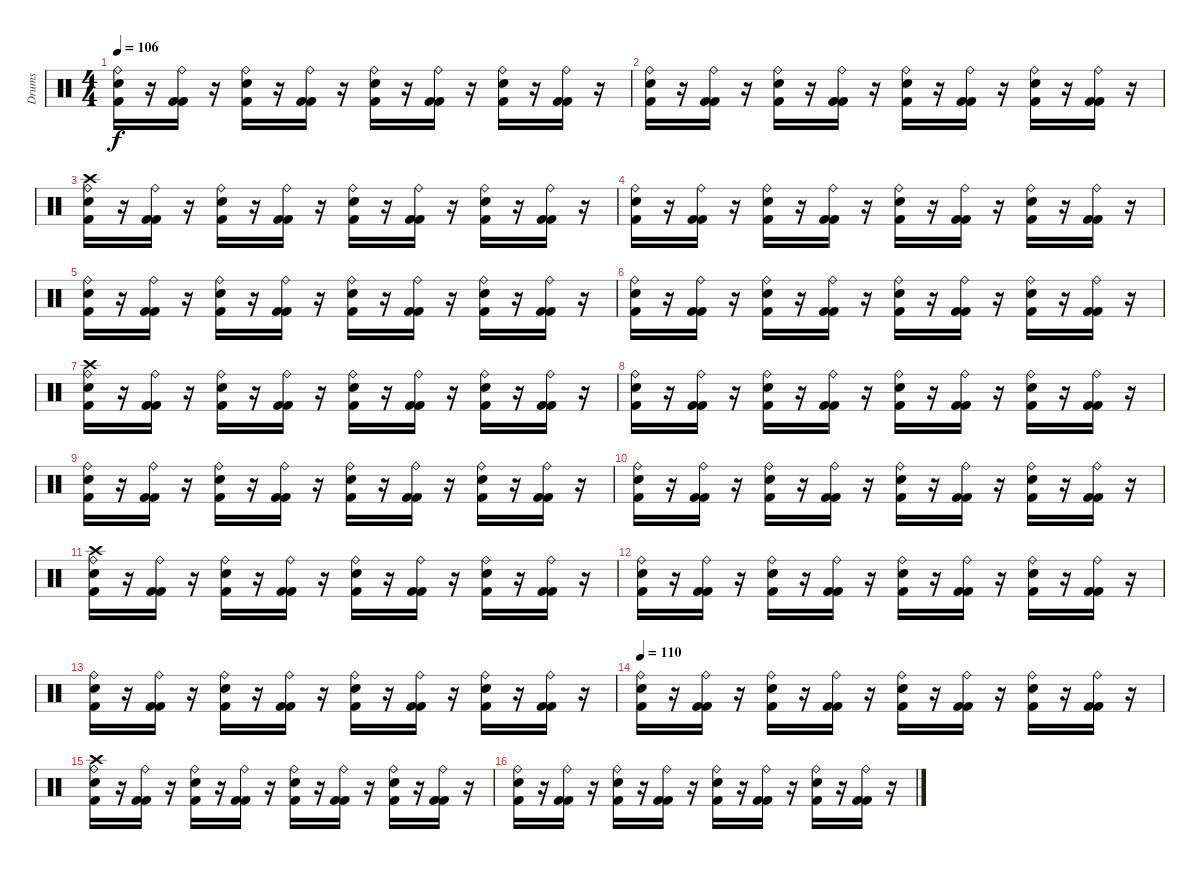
\track ("Drums" "Drums") {instrument percussion}
\staff {score}
\articulation defaults
\ts (4 4)
\tempo 106
\clef neutral
\ks c
("Ride (bell)" "Snare (hit) 2" "Kick (hit) 2").16{dy f} r.16 ("Ride (bell)" "Kick (hit) 2" "Kick (hit) 2").16 r.16 ("Ride (bell)" "Snare (hit) 2" "Kick (hit) 2").16 r.16 ("Ride (bell)" "Kick (hit) 2" "Kick (hit) 2").16 r.16 ("Ride (bell)" "Snare (hit) 2" "Kick (hit) 2").16 r.16 ("Ride (bell)" "Kick (hit) 2" "Kick (hit) 2").16 r.16 ("Ride (bell)" "Snare (hit) 2" "Kick (hit) 2").16 r.16 ("Ride (bell)" "Kick (hit) 2" "Kick (hit) 2").16 r.16 |
("Ride (bell)" "Snare (hit) 2" "Kick (hit) 2").16 r.16 ("Ride (bell)" "Kick (hit) 2" "Kick (hit) 2").16 r.16 ("Ride (bell)" "Snare (hit) 2" "Kick (hit) 2").16 r.16 ("Ride (bell)" "Kick (hit) 2" "Kick (hit) 2").16 r.16 ("Ride (bell)" "Snare (hit) 2" "Kick (hit) 2").16 r.16 ("Ride (bell)" "Kick (hit) 2" "Kick (hit) 2").16 r.16 ("Ride (bell)" "Snare (hit) 2" "Kick (hit) 2").16 r.16 ("Ride (bell)" "Kick (hit) 2" "Kick (hit) 2").16 r.16 |
("Crash high (hit)" "Ride (bell)" "Snare (hit) 2" "Kick (hit) 2").16 r.16 ("Ride (bell)" "Kick (hit) 2" "Kick (hit) 2").16 r.16 ("Ride (bell)" "Snare (hit) 2" "Kick (hit) 2").16 r.16 ("Ride (bell)" "Kick (hit) 2" "Kick (hit) 2").16 r.16 ("Ride (bell)" "Snare (hit) 2" "Kick (hit) 2").16 r.16 ("Ride (bell)" "Kick (hit) 2" "Kick (hit) 2").16 r.16 ("Ride (bell)" "Snare (hit) 2" "Kick (hit) 2").16 r.16 ("Ride (bell)" "Kick (hit) 2" "Kick (hit) 2").16 r.16 |
("Ride (bell)" "Snare (hit) 2" "Kick (hit) 2").16 r.16 ("Ride (bell)" "Kick (hit) 2" "Kick (hit) 2").16 r.16 ("Ride (bell)" "Snare (hit) 2" "Kick (hit) 2").16 r.16 ("Ride (bell)" "Kick (hit) 2" "Kick (hit) 2").16 r.16 ("Ride (bell)" "Snare (hit) 2" "Kick (hit) 2").16 r.16 ("Ride (bell)" "Kick (hit) 2" "Kick (hit) 2").16 r.16 ("Ride (bell)" "Snare (hit) 2" "Kick (hit) 2").16 r.16 ("Ride (bell)" "Kick (hit) 2" "Kick (hit) 2").16 r.16 |
("Ride (bell)" "Snare (hit) 2" "Kick (hit) 2").16 r.16 ("Ride (bell)" "Kick (hit) 2" "Kick (hit) 2").16 r.16 ("Ride (bell)" "Snare (hit) 2" "Kick (hit) 2").16 r.16 ("Ride (bell)" "Kick (hit) 2" "Kick (hit) 2").16 r.16 ("Ride (bell)" "Snare (hit) 2" "Kick (hit) 2").16 r.16 ("Ride (bell)" "Kick (hit) 2" "Kick (hit) 2").16 r.16 ("Ride (bell)" "Snare (hit) 2" "Kick (hit) 2").16 r.16 ("Ride (bell)" "Kick (hit) 2" "Kick (hit) 2").16 r.16 |
("Ride (bell)" "Snare (hit) 2" "Kick (hit) 2").16 r.16 ("Ride (bell)" "Kick (hit) 2" "Kick (hit) 2").16 r.16 ("Ride (bell)" "Snare (hit) 2" "Kick (hit) 2").16 r.16 ("Ride (bell)" "Kick (hit) 2" "Kick (hit) 2").16 r.16 ("Ride (bell)" "Snare (hit) 2" "Kick (hit) 2").16 r.16 ("Ride (bell)" "Kick (hit) 2" "Kick (hit) 2").16 r.16 ("Ride (bell)" "Snare (hit) 2" "Kick (hit) 2").16 r.16 ("Ride (bell)" "Kick (hit) 2" "Kick (hit) 2").16 r.16 |
("Crash high (hit)" "Ride (bell)" "Snare (hit) 2" "Kick (hit) 2").16 r.16 ("Ride (bell)" "Kick (hit) 2" "Kick (hit) 2").16 r.16 ("Ride (bell)" "Snare (hit) 2" "Kick (hit) 2").16 r.16 ("Ride (bell)" "Kick (hit) 2" "Kick (hit) 2").16 r.16 ("Ride (bell)" "Snare (hit) 2" "Kick (hit) 2").16 r.16 ("Ride (bell)" "Kick (hit) 2" "Kick (hit) 2").16 r.16 ("Ride (bell)" "Snare (hit) 2" "Kick (hit) 2").16 r.16 ("Ride (bell)" "Kick (hit) 2" "Kick (hit) 2").16 r.16 |
("Ride (bell)" "Snare (hit) 2" "Kick (hit) 2").16 r.16 ("Ride (bell)" "Kick (hit) 2" "Kick (hit) 2").16 r.16 ("Ride (bell)" "Snare (hit) 2" "Kick (hit) 2").16 r.16 ("Ride (bell)" "Kick (hit) 2" "Kick (hit) 2").16 r.16 ("Ride (bell)" "Snare (hit) 2" "Kick (hit) 2").16 r.16 ("Ride (bell)" "Kick (hit) 2" "Kick (hit) 2").16 r.16 ("Ride (bell)" "Snare (hit) 2" "Kick (hit) 2").16 r.16 ("Ride (bell)" "Kick (hit) 2" "Kick (hit) 2").16 r.16 |
("Ride (bell)" "Snare (hit) 2" "Kick (hit) 2").16 r.16 ("Ride (bell)" "Kick (hit) 2" "Kick (hit) 2").16 r.16 ("Ride (bell)" "Snare (hit) 2" "Kick (hit) 2").16 r.16 ("Ride (bell)" "Kick (hit) 2" "Kick (hit) 2").16 r.16 ("Ride (bell)" "Snare (hit) 2" "Kick (hit) 2").16 r.16 ("Ride (bell)" "Kick (hit) 2" "Kick (hit) 2").16 r.16 ("Ride (bell)" "Snare (hit) 2" "Kick (hit) 2").16 r.16 ("Ride (bell)" "Kick (hit) 2" "Kick (hit) 2").16 r.16 |
("Ride (bell)" "Snare (hit) 2" "Kick (hit) 2").16 r.16 ("Ride (bell)" "Kick (hit) 2" "Kick (hit) 2").16 r.16 ("Ride (bell)" "Snare (hit) 2" "Kick (hit) 2").16 r.16 ("Ride (bell)" "Kick (hit) 2" "Kick (hit) 2").16 r.16 ("Ride (bell)" "Snare (hit) 2" "Kick (hit) 2").16 r.16 ("Ride (bell)" "Kick (hit) 2" "Kick (hit) 2").16 r.16 ("Ride (bell)" "Snare (hit) 2" "Kick (hit) 2").16 r.16 ("Ride (bell)" "Kick (hit) 2" "Kick (hit) 2").16 r.16 |
("Crash high (hit)" "Ride (bell)" "Snare (hit) 2" "Kick (hit) 2").16 r.16 ("Ride (bell)" "Kick (hit) 2" "Kick (hit) 2").16 r.16 ("Ride (bell)" "Snare (hit) 2" "Kick (hit) 2").16 r.16 ("Ride (bell)" "Kick (hit) 2" "Kick (hit) 2").16 r.16 ("Ride (bell)" "Snare (hit) 2" "Kick (hit) 2").16 r.16 ("Ride (bell)" "Kick (hit) 2" "Kick (hit) 2").16 r.16 ("Ride (bell)" "Snare (hit) 2" "Kick (hit) 2").16 r.16 ("Ride (bell)" "Kick (hit) 2" "Kick (hit) 2").16 r.16 |
("Ride (bell)" "Snare (hit) 2" "Kick (hit) 2").16 r.16 ("Ride (bell)" "Kick (hit) 2" "Kick (hit) 2").16 r.16 ("Ride (bell)" "Snare (hit) 2" "Kick (hit) 2").16 r.16 ("Ride (bell)" "Kick (hit) 2" "Kick (hit) 2").16 r.16 ("Ride (bell)" "Snare (hit) 2" "Kick (hit) 2").16 r.16 ("Ride (bell)" "Kick (hit) 2" "Kick (hit) 2").16 r.16 ("Ride (bell)" "Snare (hit) 2" "Kick (hit) 2").16 r.16 ("Ride (bell)" "Kick (hit) 2" "Kick (hit) 2").16 r.16 |
("Ride (bell)" "Snare (hit) 2" "Kick (hit) 2").16 r.16 ("Ride (bell)" "Kick (hit) 2" "Kick (hit) 2").16 r.16 ("Ride (bell)" "Snare (hit) 2" "Kick (hit) 2").16 r.16 ("Ride (bell)" "Kick (hit) 2" "Kick (hit) 2").16 r.16 ("Ride (bell)" "Snare (hit) 2" "Kick (hit) 2").16 r.16 ("Ride (bell)" "Kick (hit) 2" "Kick (hit) 2").16 r.16 ("Ride (bell)" "Snare (hit) 2" "Kick (hit) 2").16 r.16 ("Ride (bell)" "Kick (hit) 2" "Kick (hit) 2").16 r.16 |
\tempo 110
("Ride (bell)" "Snare (hit) 2" "Kick (hit) 2").16 r.16 ("Ride (bell)" "Kick (hit) 2" "Kick (hit) 2").16 r.16 ("Ride (bell)" "Snare (hit) 2" "Kick (hit) 2").16 r.16 ("Ride (bell)" "Kick (hit) 2" "Kick (hit) 2").16 r.16 ("Ride (bell)" "Snare (hit) 2" "Kick (hit) 2").16 r.16 ("Ride (bell)" "Kick (hit) 2" "Kick (hit) 2").16 r.16 ("Ride (bell)" "Snare (hit) 2" "Kick (hit) 2").16 r.16 ("Ride (bell)" "Kick (hit) 2" "Kick (hit) 2").16 r.16 |
("Crash high (hit)" "Ride (bell)" "Snare (hit) 2" "Kick (hit) 2").16 r.16 ("Ride (bell)" "Kick (hit) 2" "Kick (hit) 2").16 r.16 ("Ride (bell)" "Snare (hit) 2" "Kick (hit) 2").16 r.16 ("Ride (bell)" "Kick (hit) 2" "Kick (hit) 2").16 r.16 ("Ride (bell)" "Snare (hit) 2" "Kick (hit) 2").16 r.16 ("Ride (bell)" "Kick (hit) 2" "Kick (hit) 2").16 r.16 ("Ride (bell)" "Snare (hit) 2" "Kick (hit) 2").16 r.16 ("Ride (bell)" "Kick (hit) 2" "Kick (hit) 2").16 r.16 |
("Ride (bell)" "Snare (hit) 2" "Kick (hit) 2").16 r.16 ("Ride (bell)" "Kick (hit) 2" "Kick (hit) 2").16 r.16 ("Ride (bell)" "Snare (hit) 2" "Kick (hit) 2").16 r.16 ("Ride (bell)" "Kick (hit) 2" "Kick (hit) 2").16 r.16 ("Ride (bell)" "Snare (hit) 2" "Kick (hit) 2").16 r.16 ("Ride (bell)" "Kick (hit) 2" "Kick (hit) 2").16 r.16 ("Ride (bell)" "Snare (hit) 2" "Kick (hit) 2").16 r.16 ("Ride (bell)" "Kick (hit) 2" "Kick (hit) 2").16 r.16
